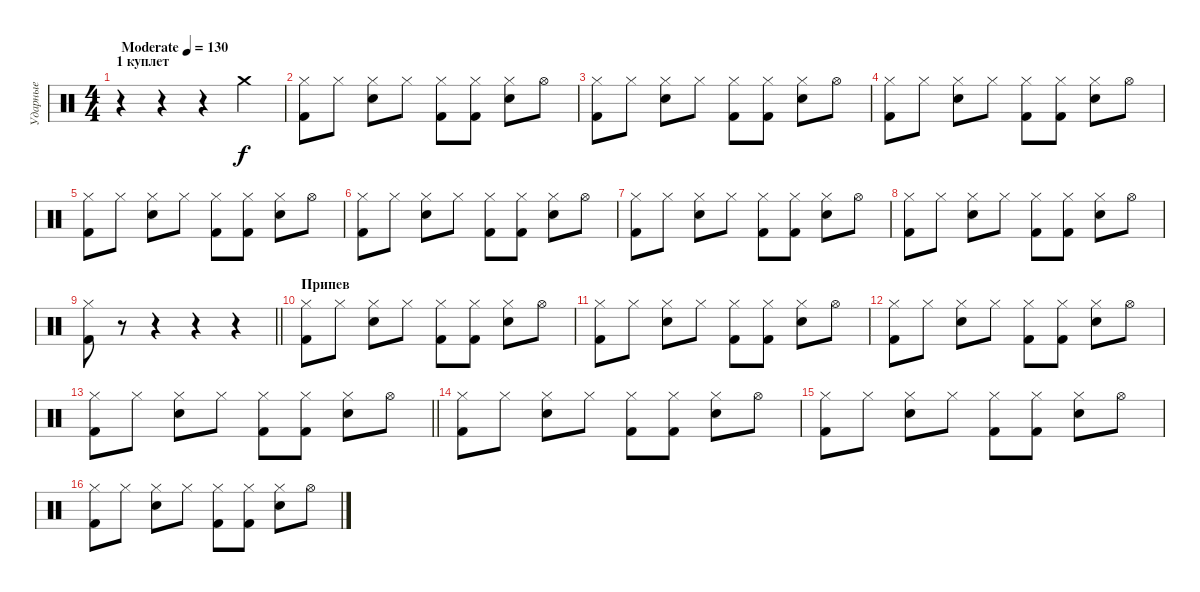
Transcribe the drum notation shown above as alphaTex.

\track ("Ударные" "Ударные") {instrument percussion}
\staff {score}
\articulation defaults
\ts (4 4)
\section ("" "1 куплет")
\tempo (130 "Moderate")
\clef neutral
\ks c
r.4{dy f} r.4 r.4 "Crash medium (hit)".4 |
("Hi-Hat (closed)" "Kick (hit) 2").8 "Hi-Hat (closed)".8 ("Hi-Hat (closed)" "Electric Snare (hit)").8 "Hi-Hat (closed)".8 ("Hi-Hat (closed)" "Kick (hit) 2").8 ("Hi-Hat (closed)" "Kick (hit) 2").8 ("Hi-Hat (closed)" "Electric Snare (hit)").8 "Hi-Hat (open)".8 |
("Hi-Hat (closed)" "Kick (hit) 2").8 "Hi-Hat (closed)".8 ("Hi-Hat (closed)" "Electric Snare (hit)").8 "Hi-Hat (closed)".8 ("Hi-Hat (closed)" "Kick (hit) 2").8 ("Hi-Hat (closed)" "Kick (hit) 2").8 ("Hi-Hat (closed)" "Electric Snare (hit)").8 "Hi-Hat (open)".8 |
("Hi-Hat (closed)" "Kick (hit) 2").8 "Hi-Hat (closed)".8 ("Hi-Hat (closed)" "Electric Snare (hit)").8 "Hi-Hat (closed)".8 ("Hi-Hat (closed)" "Kick (hit) 2").8 ("Hi-Hat (closed)" "Kick (hit) 2").8 ("Hi-Hat (closed)" "Electric Snare (hit)").8 "Hi-Hat (open)".8 |
("Hi-Hat (closed)" "Kick (hit) 2").8 "Hi-Hat (closed)".8 ("Hi-Hat (closed)" "Electric Snare (hit)").8 "Hi-Hat (closed)".8 ("Hi-Hat (closed)" "Kick (hit) 2").8 ("Hi-Hat (closed)" "Kick (hit) 2").8 ("Hi-Hat (closed)" "Electric Snare (hit)").8 "Hi-Hat (open)".8 |
("Hi-Hat (closed)" "Kick (hit) 2").8 "Hi-Hat (closed)".8 ("Hi-Hat (closed)" "Electric Snare (hit)").8 "Hi-Hat (closed)".8 ("Hi-Hat (closed)" "Kick (hit) 2").8 ("Hi-Hat (closed)" "Kick (hit) 2").8 ("Hi-Hat (closed)" "Electric Snare (hit)").8 "Hi-Hat (open)".8 |
("Hi-Hat (closed)" "Kick (hit) 2").8 "Hi-Hat (closed)".8 ("Hi-Hat (closed)" "Electric Snare (hit)").8 "Hi-Hat (closed)".8 ("Hi-Hat (closed)" "Kick (hit) 2").8 ("Hi-Hat (closed)" "Kick (hit) 2").8 ("Hi-Hat (closed)" "Electric Snare (hit)").8 "Hi-Hat (open)".8 |
("Hi-Hat (closed)" "Kick (hit) 2").8 "Hi-Hat (closed)".8 ("Hi-Hat (closed)" "Electric Snare (hit)").8 "Hi-Hat (closed)".8 ("Hi-Hat (closed)" "Kick (hit) 2").8 ("Hi-Hat (closed)" "Kick (hit) 2").8 ("Hi-Hat (closed)" "Electric Snare (hit)").8 "Hi-Hat (open)".8 |
\barLineRight lightlight
("Hi-Hat (closed)" "Kick (hit) 2").8 r.8 r.4 r.4 r.4 |
\section ("" "Припев")
("Hi-Hat (closed)" "Kick (hit) 2").8 "Hi-Hat (closed)".8 ("Hi-Hat (closed)" "Electric Snare (hit)").8 "Hi-Hat (closed)".8 ("Hi-Hat (closed)" "Kick (hit) 2").8 ("Hi-Hat (closed)" "Kick (hit) 2").8 ("Hi-Hat (closed)" "Electric Snare (hit)").8 "Hi-Hat (open)".8 |
("Hi-Hat (closed)" "Kick (hit) 2").8 "Hi-Hat (closed)".8 ("Hi-Hat (closed)" "Electric Snare (hit)").8 "Hi-Hat (closed)".8 ("Hi-Hat (closed)" "Kick (hit) 2").8 ("Hi-Hat (closed)" "Kick (hit) 2").8 ("Hi-Hat (closed)" "Electric Snare (hit)").8 "Hi-Hat (open)".8 |
("Hi-Hat (closed)" "Kick (hit) 2").8 "Hi-Hat (closed)".8 ("Hi-Hat (closed)" "Electric Snare (hit)").8 "Hi-Hat (closed)".8 ("Hi-Hat (closed)" "Kick (hit) 2").8 ("Hi-Hat (closed)" "Kick (hit) 2").8 ("Hi-Hat (closed)" "Electric Snare (hit)").8 "Hi-Hat (open)".8 |
\barLineRight lightlight
("Hi-Hat (closed)" "Kick (hit) 2").8 "Hi-Hat (closed)".8 ("Hi-Hat (closed)" "Electric Snare (hit)").8 "Hi-Hat (closed)".8 ("Hi-Hat (closed)" "Kick (hit) 2").8 ("Hi-Hat (closed)" "Kick (hit) 2").8 ("Hi-Hat (closed)" "Electric Snare (hit)").8 "Hi-Hat (open)".8 |
("Hi-Hat (closed)" "Kick (hit) 2").8 "Hi-Hat (closed)".8 ("Hi-Hat (closed)" "Electric Snare (hit)").8 "Hi-Hat (closed)".8 ("Hi-Hat (closed)" "Kick (hit) 2").8 ("Hi-Hat (closed)" "Kick (hit) 2").8 ("Hi-Hat (closed)" "Electric Snare (hit)").8 "Hi-Hat (open)".8 |
("Hi-Hat (closed)" "Kick (hit) 2").8 "Hi-Hat (closed)".8 ("Hi-Hat (closed)" "Electric Snare (hit)").8 "Hi-Hat (closed)".8 ("Hi-Hat (closed)" "Kick (hit) 2").8 ("Hi-Hat (closed)" "Kick (hit) 2").8 ("Hi-Hat (closed)" "Electric Snare (hit)").8 "Hi-Hat (open)".8 |
("Hi-Hat (closed)" "Kick (hit) 2").8 "Hi-Hat (closed)".8 ("Hi-Hat (closed)" "Electric Snare (hit)").8 "Hi-Hat (closed)".8 ("Hi-Hat (closed)" "Kick (hit) 2").8 ("Hi-Hat (closed)" "Kick (hit) 2").8 ("Hi-Hat (closed)" "Electric Snare (hit)").8 "Hi-Hat (open)".8
